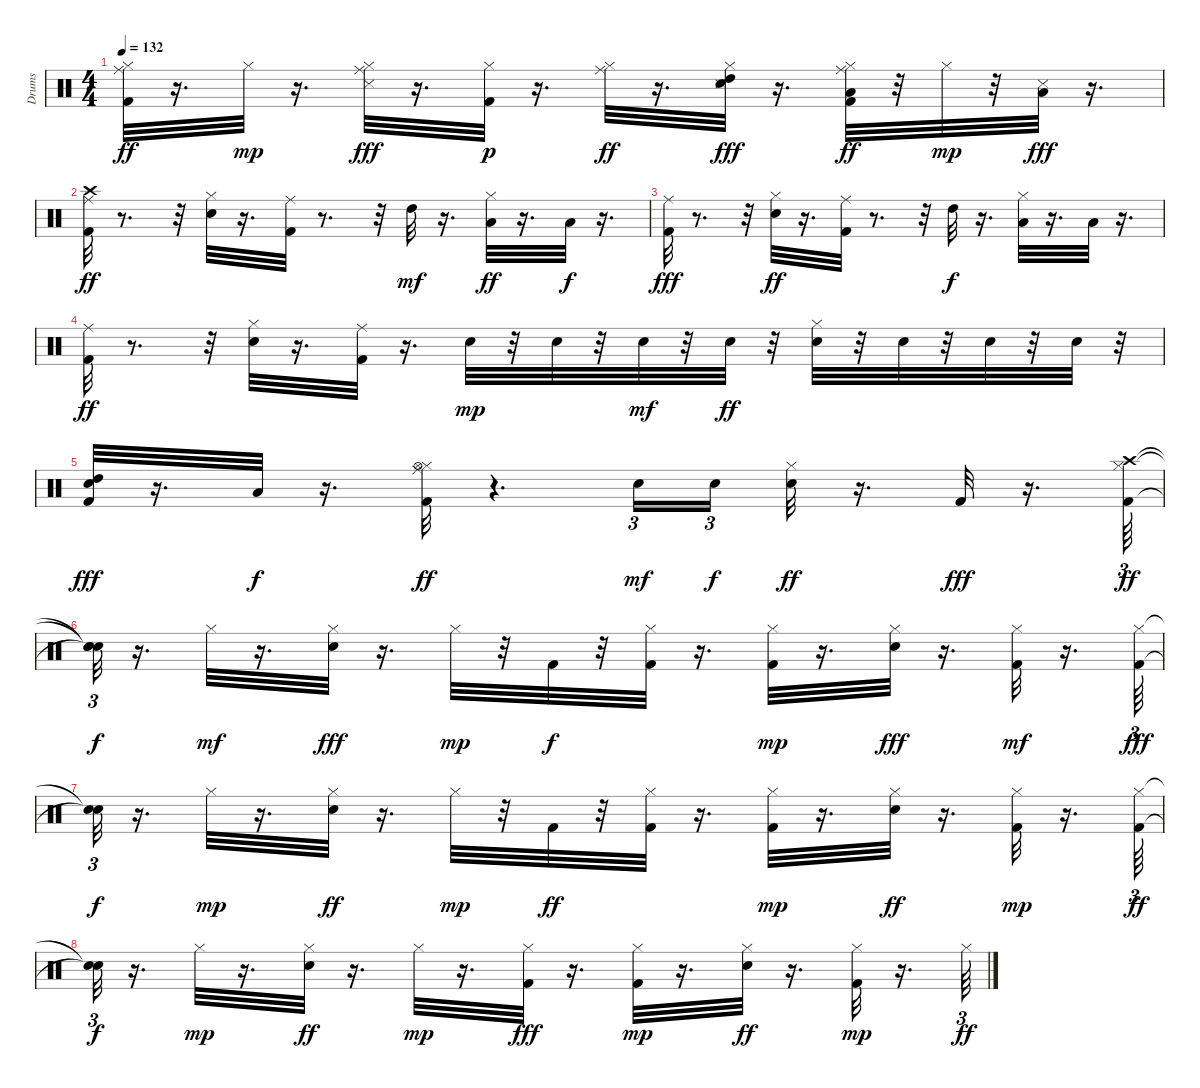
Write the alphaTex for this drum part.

\track ("Drums" "Drums") {instrument percussion}
\staff {score}
\articulation defaults
\ts (4 4)
\tempo 132
\clef neutral
\ks c
("Kick (hit) 2" "Hi-Hat (closed)" "Ride (middle)").32{dy ff} r.16{d} "Hi-Hat (closed)".32{dy mp} r.16{d} ("Hi-Hat (closed)" "Ride (middle)" "Snare (side stick) 3").32{dy fff} r.16{d} ("Kick (hit) 2" "Hi-Hat (closed)").32{dy p} r.16{d} ("Hi-Hat (closed)" "Ride (middle)").32{dy ff} r.16{d} ("Snare (hit) 2" "Hi-Hat (closed)" "High Tom (hit)" "Snare (side stick) 3").32{dy fff} r.16{d} ("Kick (hit) 2" "Hi-Hat (closed)" "Ride (middle)" "Low Tom (hit)").32{dy ff} r.32 "Hi-Hat (closed)".32{dy mp} r.32 ("Low Floor Tom (hit)" "Snare (side stick) 3").32{dy fff} r.16{d} |
("Kick (hit) 2" "Crash high (hit)" "Ride (middle)").32{dy ff} r.8{d} r.32 ("Snare (hit) 2" "Hi-Hat (closed)").32 r.16{d} ("Kick (hit) 2" "Ride (middle)").32 r.8{d} r.32 "High Tom (hit)".32{dy mf} r.16{d} ("Hi-Hat (closed)" "Low Tom (hit)").32{dy ff} r.16{d} "Low Floor Tom (hit)".32{dy f} r.16{d} |
("Kick (hit) 2" "Ride (middle)").32{dy fff} r.8{d} r.32 ("Snare (hit) 2" "Hi-Hat (closed)").32{dy ff} r.16{d} ("Kick (hit) 2" "Ride (middle)").32 r.8{d} r.32 "High Tom (hit)".32{dy f} r.16{d} ("Hi-Hat (closed)" "Low Tom (hit)").32 r.16{d} "Low Floor Tom (hit)".32 r.16{d} |
("Kick (hit) 2" "Ride (middle)").32{dy ff} r.8{d} r.32 ("Snare (hit) 2" "Hi-Hat (closed)").32 r.16{d} ("Kick (hit) 2" "Ride (middle)").32 r.16{d} "Snare (hit) 2".32{dy mp} r.32 "Snare (hit) 2".32 r.32 "Snare (hit) 2".32{dy mf} r.32 "Snare (hit) 2".32{dy ff} r.32 ("Snare (hit) 2" "Hi-Hat (closed)").32 r.32 "Snare (hit) 2".32 r.32 "Snare (hit) 2".32 r.32 "Snare (hit) 2".32 r.32 |
("Kick (hit) 2" "Snare (hit) 2" "High Tom (hit)").32{dy fff} r.16{d} "Low Floor Tom (hit)".32{dy f} r.16{d} ("Kick (hit) 2" "Hi-Hat (closed)" "Ride (middle)" "Hi-Hat (open)").32{dy ff} r.4{d} "Snare (hit) 2".16{tu (3 2) dy mf} "Snare (hit) 2".16{tu (3 2) dy f beam splitsecondary} ("Snare (hit) 2" "Hi-Hat (closed)").32{dy ff} r.16{d} "Kick (hit) 2".32{dy fff} r.16{d} ("Kick (hit) 2" "Hi-Hat (closed)" "Crash high (hit)").64{tu (3 2) dy ff} |
("Snare (hit)"{t} "Snare (hit)"{t} "Snare (hit)"{t}).32{tu (3 2) dy f} r.16{d} "Hi-Hat (closed)".32{dy mf} r.16{d} ("Snare (hit) 2" "Hi-Hat (closed)").32{dy fff} r.16{d} "Hi-Hat (closed)".32{dy mp} r.32 "Kick (hit) 2".32{dy f} r.32 ("Kick (hit) 2" "Hi-Hat (closed)").32 r.16{d} ("Kick (hit) 2" "Hi-Hat (closed)").32{dy mp} r.16{d} ("Snare (hit) 2" "Hi-Hat (closed)").32{dy fff} r.16{d} ("Kick (hit) 2" "Hi-Hat (closed)").32{dy mf} r.16{d} ("Kick (hit) 2" "Hi-Hat (closed)").64{tu (3 2) dy fff} |
("Snare (hit)"{t} "Snare (hit)"{t}).32{tu (3 2) dy f} r.16{d} "Hi-Hat (closed)".32{dy mp} r.16{d} ("Snare (hit) 2" "Hi-Hat (closed)").32{dy ff} r.16{d} "Hi-Hat (closed)".32{dy mp} r.32 "Kick (hit) 2".32{dy ff} r.32 ("Kick (hit) 2" "Hi-Hat (closed)").32 r.16{d} ("Kick (hit) 2" "Hi-Hat (closed)").32{dy mp} r.16{d} ("Snare (hit) 2" "Hi-Hat (closed)").32{dy ff} r.16{d} ("Kick (hit) 2" "Hi-Hat (closed)").32{dy mp} r.16{d} ("Kick (hit) 2" "Hi-Hat (closed)").64{tu (3 2) dy ff} |
("Snare (hit)"{t} "Snare (hit)"{t}).32{tu (3 2) dy f} r.16{d} "Hi-Hat (closed)".32{dy mp} r.16{d} ("Snare (hit) 2" "Hi-Hat (closed)").32{dy ff} r.16{d} "Hi-Hat (closed)".32{dy mp} r.16{d} ("Kick (hit) 2" "Hi-Hat (closed)").32{dy fff} r.16{d} ("Kick (hit) 2" "Hi-Hat (closed)").32{dy mp} r.16{d} ("Snare (hit) 2" "Hi-Hat (closed)").32{dy ff} r.16{d} ("Kick (hit) 2" "Hi-Hat (closed)").32{dy mp} r.16{d} "Hi-Hat (closed)".64{tu (3 2) dy ff}
